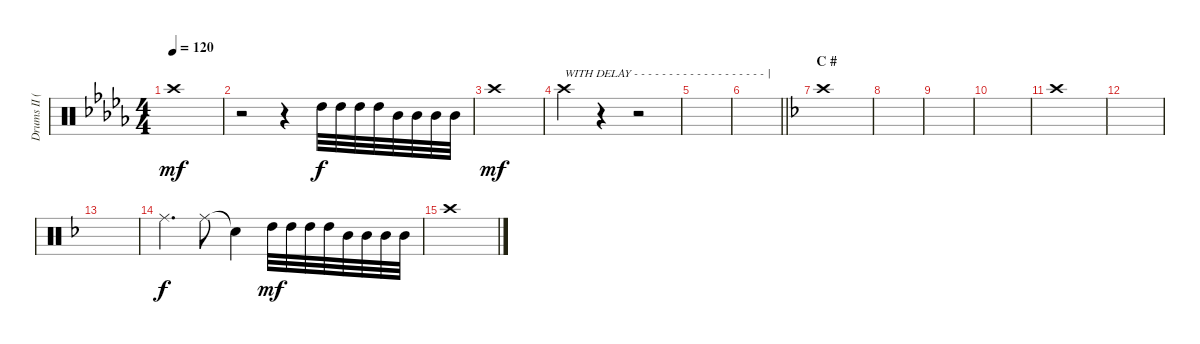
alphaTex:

\track ("Drums II (Tainaka Ritsu)" "Drums II (") {instrument percussion}
\staff {score}
\articulation defaults
\ts (4 4)
\tempo 120
\clef neutral
\ks db "Crash high (hit)".1{dy mf}
|
r.2 r.4 "High Tom (hit)".32{dy f} "High Tom (hit)".32 "High Tom (hit)".32 "High Tom (hit)".32 "Mid Tom (hit)".32 "Mid Tom (hit)".32 "Mid Tom (hit)".32 "Mid Tom (hit)".32 |
"Crash high (hit)".1{dy mf} |
"Crash high (hit)".4{txt "WITH DELAY - - - - - - - - - - - - - - - - - - - |"} r.4 r.2 |
|
\barLineRight lightlight
|
\section ("" "C #")
\ks f "Crash high (hit)".1
|
|
|
|
"Crash high (hit)".1 |
|
|
"Ride (middle)".4{d dy f} "Ride (middle)".8 "Snare (hit)"{t}.4 "High Tom (hit)".32{dy mf} "High Tom (hit)".32 "High Tom (hit)".32 "High Tom (hit)".32 "Mid Tom (hit)".32 "Mid Tom (hit)".32 "Mid Tom (hit)".32 "Mid Tom (hit)".32 |
"Crash high (hit)".1
